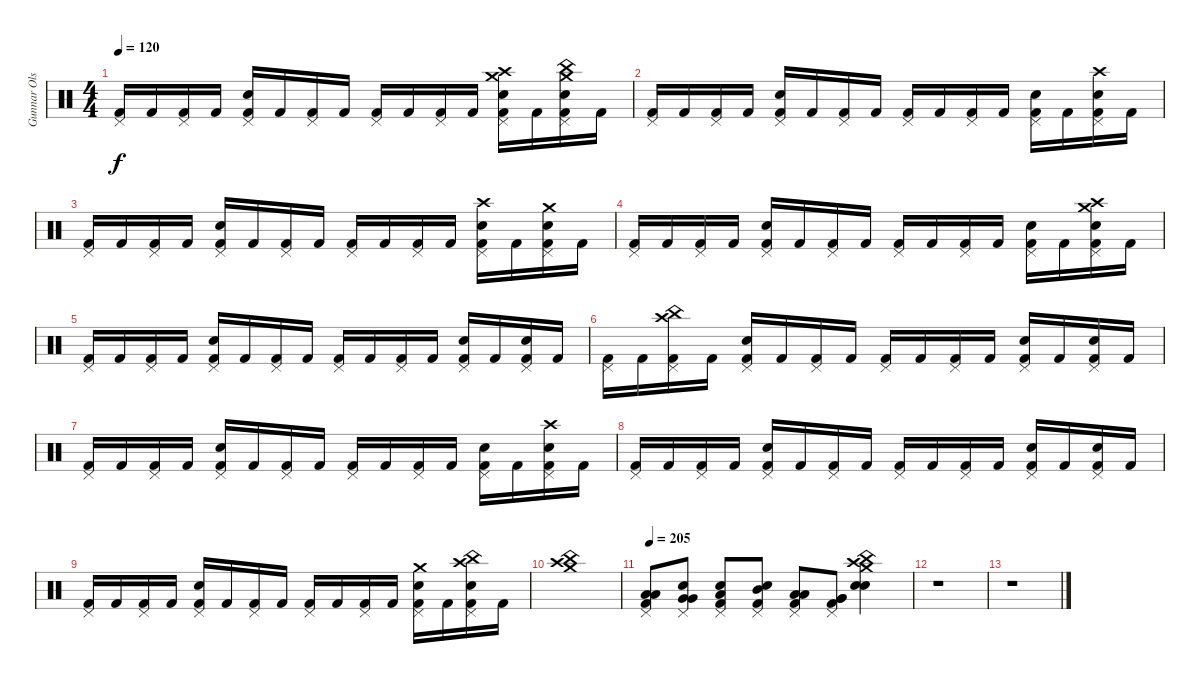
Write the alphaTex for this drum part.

\track ("Gunnar Olsen" "Gunnar Ols") {instrument percussion}
\staff {score}
\articulation defaults
\ts (4 4)
\tempo 120
\clef neutral
\ks c
("Pedal Hi-Hat (hit)" "Kick (hit) 2").16{dy f} "Kick (hit) 2".16 ("Pedal Hi-Hat (hit)" "Kick (hit) 2").16 "Kick (hit) 2".16 ("Pedal Hi-Hat (hit)" "Snare (hit) 2" "Kick (hit) 2").16 "Kick (hit) 2".16 ("Pedal Hi-Hat (hit)" "Kick (hit) 2").16 "Kick (hit) 2".16 ("Pedal Hi-Hat (hit)" "Kick (hit) 2").16 "Kick (hit) 2".16 ("Pedal Hi-Hat (hit)" "Kick (hit) 2").16 "Kick (hit) 2".16 ("Crash medium (hit)" "Crash high (hit)" "Pedal Hi-Hat (hit)" "Snare (hit) 2" "Kick (hit) 2").16 "Kick (hit) 2".16 ("Crash medium (hit)" "China (hit)" "Pedal Hi-Hat (hit)" "Snare (hit) 2" "Kick (hit) 2").16 "Kick (hit) 2".16 |
("Pedal Hi-Hat (hit)" "Kick (hit) 2").16 "Kick (hit) 2".16 ("Pedal Hi-Hat (hit)" "Kick (hit) 2").16 "Kick (hit) 2".16 ("Pedal Hi-Hat (hit)" "Kick (hit) 2" "Snare (hit) 2").16 "Kick (hit) 2".16 ("Pedal Hi-Hat (hit)" "Kick (hit) 2").16 "Kick (hit) 2".16 ("Pedal Hi-Hat (hit)" "Kick (hit) 2").16 "Kick (hit) 2".16 ("Pedal Hi-Hat (hit)" "Kick (hit) 2").16 "Kick (hit) 2".16 ("Pedal Hi-Hat (hit)" "Kick (hit) 2" "Snare (hit) 2").16 "Kick (hit) 2".16 ("Crash high (hit)" "Snare (hit) 2" "Pedal Hi-Hat (hit)" "Kick (hit) 2").16 "Kick (hit) 2".16 |
("Pedal Hi-Hat (hit)" "Kick (hit) 2").16 "Kick (hit) 2".16 ("Pedal Hi-Hat (hit)" "Kick (hit) 2").16 "Kick (hit) 2".16 ("Pedal Hi-Hat (hit)" "Kick (hit) 2" "Snare (hit) 2").16 "Kick (hit) 2".16 ("Pedal Hi-Hat (hit)" "Kick (hit) 2").16 "Kick (hit) 2".16 ("Pedal Hi-Hat (hit)" "Kick (hit) 2").16 "Kick (hit) 2".16 ("Pedal Hi-Hat (hit)" "Kick (hit) 2").16 "Kick (hit) 2".16 ("Crash high (hit)" "Pedal Hi-Hat (hit)" "Kick (hit) 2" "Snare (hit) 2").16 "Kick (hit) 2".16 ("Crash medium (hit)" "Snare (hit) 2" "Pedal Hi-Hat (hit)" "Kick (hit) 2").16 "Kick (hit) 2".16 |
("Pedal Hi-Hat (hit)" "Kick (hit) 2").16 "Kick (hit) 2".16 ("Pedal Hi-Hat (hit)" "Kick (hit) 2").16 "Kick (hit) 2".16 ("Pedal Hi-Hat (hit)" "Kick (hit) 2" "Snare (hit) 2").16 "Kick (hit) 2".16 ("Pedal Hi-Hat (hit)" "Kick (hit) 2").16 "Kick (hit) 2".16 ("Pedal Hi-Hat (hit)" "Kick (hit) 2").16 "Kick (hit) 2".16 ("Pedal Hi-Hat (hit)" "Kick (hit) 2").16 "Kick (hit) 2".16 ("Pedal Hi-Hat (hit)" "Kick (hit) 2" "Snare (hit) 2").16 "Kick (hit) 2".16 ("Crash high (hit)" "Crash medium (hit)" "Snare (hit) 2" "Pedal Hi-Hat (hit)" "Kick (hit) 2").16 "Kick (hit) 2".16 |
("Pedal Hi-Hat (hit)" "Kick (hit) 2").16 "Kick (hit) 2".16 ("Pedal Hi-Hat (hit)" "Kick (hit) 2").16 "Kick (hit) 2".16 ("Pedal Hi-Hat (hit)" "Kick (hit) 2" "Snare (hit) 2").16 "Kick (hit) 2".16 ("Pedal Hi-Hat (hit)" "Kick (hit) 2").16 "Kick (hit) 2".16 ("Pedal Hi-Hat (hit)" "Kick (hit) 2").16 "Kick (hit) 2".16 ("Pedal Hi-Hat (hit)" "Kick (hit) 2").16 "Kick (hit) 2".16 ("Pedal Hi-Hat (hit)" "Kick (hit) 2" "Snare (hit) 2").16 "Kick (hit) 2".16 ("Snare (hit) 2" "Pedal Hi-Hat (hit)" "Kick (hit) 2").16 "Kick (hit) 2".16 |
("Pedal Hi-Hat (hit)" "Kick (hit) 2").16 "Kick (hit) 2".16 ("China (hit)" "Crash high (hit)" "Pedal Hi-Hat (hit)" "Kick (hit) 2").16 "Kick (hit) 2".16 ("Pedal Hi-Hat (hit)" "Kick (hit) 2" "Snare (hit) 2").16 "Kick (hit) 2".16 ("Pedal Hi-Hat (hit)" "Kick (hit) 2").16 "Kick (hit) 2".16 ("Pedal Hi-Hat (hit)" "Kick (hit) 2").16 "Kick (hit) 2".16 ("Pedal Hi-Hat (hit)" "Kick (hit) 2").16 "Kick (hit) 2".16 ("Pedal Hi-Hat (hit)" "Kick (hit) 2" "Snare (hit) 2").16 "Kick (hit) 2".16 ("Snare (hit) 2" "Pedal Hi-Hat (hit)" "Kick (hit) 2").16 "Kick (hit) 2".16 |
("Pedal Hi-Hat (hit)" "Kick (hit) 2").16 "Kick (hit) 2".16 ("Pedal Hi-Hat (hit)" "Kick (hit) 2").16 "Kick (hit) 2".16 ("Pedal Hi-Hat (hit)" "Kick (hit) 2" "Snare (hit) 2").16 "Kick (hit) 2".16 ("Pedal Hi-Hat (hit)" "Kick (hit) 2").16 "Kick (hit) 2".16 ("Pedal Hi-Hat (hit)" "Kick (hit) 2").16 "Kick (hit) 2".16 ("Pedal Hi-Hat (hit)" "Kick (hit) 2").16 "Kick (hit) 2".16 ("Pedal Hi-Hat (hit)" "Kick (hit) 2" "Snare (hit) 2").16 "Kick (hit) 2".16 ("Crash high (hit)" "Snare (hit) 2" "Pedal Hi-Hat (hit)" "Kick (hit) 2").16 "Kick (hit) 2".16 |
("Pedal Hi-Hat (hit)" "Kick (hit) 2").16 "Kick (hit) 2".16 ("Pedal Hi-Hat (hit)" "Kick (hit) 2").16 "Kick (hit) 2".16 ("Pedal Hi-Hat (hit)" "Kick (hit) 2" "Snare (hit) 2").16 "Kick (hit) 2".16 ("Pedal Hi-Hat (hit)" "Kick (hit) 2").16 "Kick (hit) 2".16 ("Pedal Hi-Hat (hit)" "Kick (hit) 2").16 "Kick (hit) 2".16 ("Pedal Hi-Hat (hit)" "Kick (hit) 2").16 "Kick (hit) 2".16 ("Pedal Hi-Hat (hit)" "Kick (hit) 2" "Snare (hit) 2").16 "Kick (hit) 2".16 ("Snare (hit) 2" "Pedal Hi-Hat (hit)" "Kick (hit) 2").16 "Kick (hit) 2".16 |
("Pedal Hi-Hat (hit)" "Kick (hit) 2").16 "Kick (hit) 2".16 ("Pedal Hi-Hat (hit)" "Kick (hit) 2").16 "Kick (hit) 2".16 ("Pedal Hi-Hat (hit)" "Kick (hit) 2" "Snare (hit) 2").16 "Kick (hit) 2".16 ("Pedal Hi-Hat (hit)" "Kick (hit) 2").16 "Kick (hit) 2".16 ("Pedal Hi-Hat (hit)" "Kick (hit) 2").16 "Kick (hit) 2".16 ("Pedal Hi-Hat (hit)" "Kick (hit) 2").16 "Kick (hit) 2".16 ("Crash medium (hit)" "Pedal Hi-Hat (hit)" "Kick (hit) 2" "Snare (hit) 2").16 "Kick (hit) 2".16 ("China (hit)" "Crash high (hit)" "Snare (hit) 2" "Pedal Hi-Hat (hit)" "Kick (hit) 2").16 "Kick (hit) 2".16 |
("China (hit)" "Crash high (hit)" "Crash medium (hit)").1 |
\tempo 205
("Pedal Hi-Hat (hit)" "Low Floor Tom (hit)" "Kick (hit) 2" "Low Floor Tom (hit)").8 ("Pedal Hi-Hat (hit)" "Very Low Tom (hit)" "Snare (hit) 2" "Very Low Tom (hit)").8 ("Pedal Hi-Hat (hit)" "Snare (hit) 2" "Kick (hit) 2" "Low Tom (hit)").8 ("Pedal Hi-Hat (hit)" "Snare (hit) 2" "Kick (hit) 2" "Mid Tom (hit)").8 ("Pedal Hi-Hat (hit)" "Low Floor Tom (hit)" "Kick (hit) 2" "Low Floor Tom (hit)").8 ("Pedal Hi-Hat (hit)" "Very Low Tom (hit)" "Kick (hit) 2" "Very Low Tom (hit)").8 ("China (hit)" "Crash medium (hit)" "Snare (hit) 2" "Crash high (hit)" "Snare (hit) 2").4 |
r.1 |
r.1
